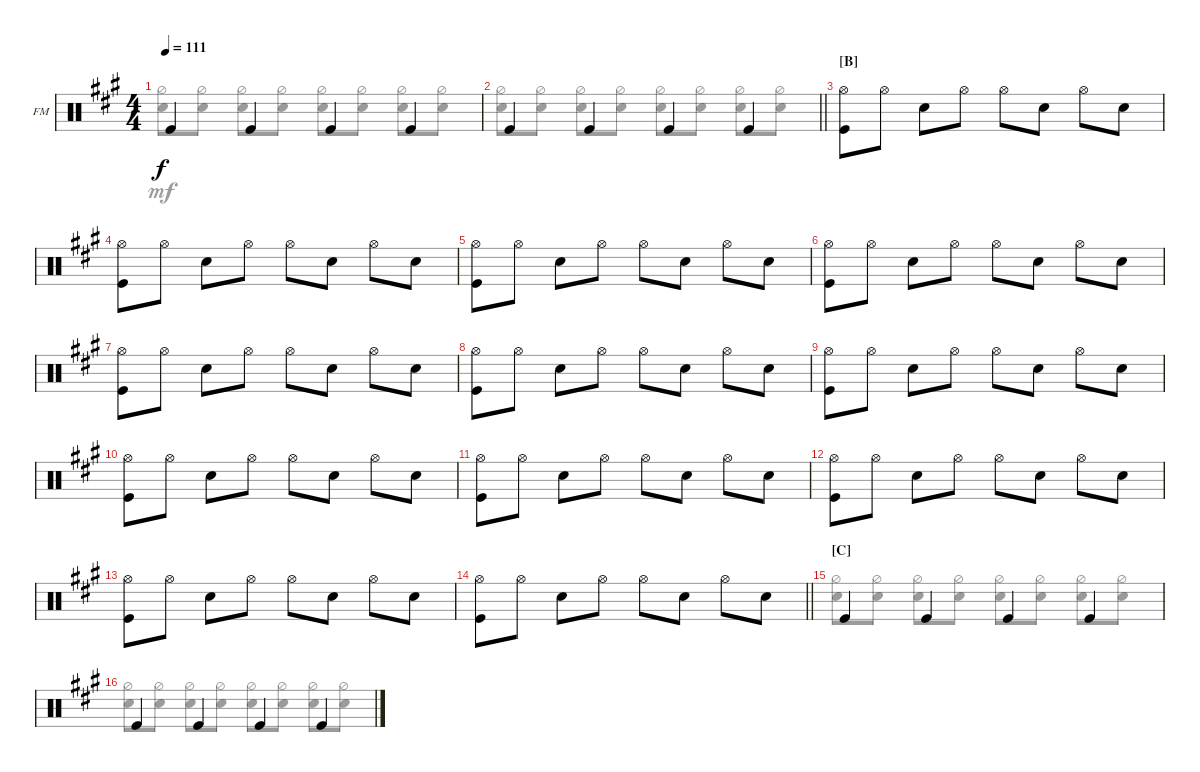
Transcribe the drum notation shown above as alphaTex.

\defaultSystemsLayout 4
\bracketExtendMode groupsimilarinstruments
\firstSystemTrackNameOrientation horizontal
\otherSystemsTrackNameOrientation horizontal
\track ("Fabrizio Moretti" "FM") {instrument percussion}
\staff {score}
\articulation defaults
\voice
\ts (4 4)
\tempo 111
\clef neutral
\ks a "Kick (hit)".4{dy f} "Kick (hit)".4 "Kick (hit)".4 "Kick (hit)".4
|
\barLineRight lightlight "Kick (hit)".4 "Kick (hit)".4 "Kick (hit)".4 "Kick (hit)".4
|
\section ("B" "")
("Kick (hit)" "Hi-Hat (open)").8 "Hi-Hat (open)".8 "Snare (hit) 2".8 "Hi-Hat (open)".8 "Hi-Hat (open)".8 "Snare (hit) 2".8 "Hi-Hat (open)".8 "Snare (hit) 2".8 |
("Kick (hit)" "Hi-Hat (open)").8 "Hi-Hat (open)".8 "Snare (hit) 2".8 "Hi-Hat (open)".8 "Hi-Hat (open)".8 "Snare (hit) 2".8 "Hi-Hat (open)".8 "Snare (hit) 2".8 |
("Kick (hit)" "Hi-Hat (open)").8 "Hi-Hat (open)".8 "Snare (hit) 2".8 "Hi-Hat (open)".8 "Hi-Hat (open)".8 "Snare (hit) 2".8 "Hi-Hat (open)".8 "Snare (hit) 2".8 |
("Kick (hit)" "Hi-Hat (open)").8 "Hi-Hat (open)".8 "Snare (hit) 2".8 "Hi-Hat (open)".8 "Hi-Hat (open)".8 "Snare (hit) 2".8 "Hi-Hat (open)".8 "Snare (hit) 2".8 |
("Kick (hit)" "Hi-Hat (open)").8 "Hi-Hat (open)".8 "Snare (hit) 2".8 "Hi-Hat (open)".8 "Hi-Hat (open)".8 "Snare (hit) 2".8 "Hi-Hat (open)".8 "Snare (hit) 2".8 |
("Kick (hit)" "Hi-Hat (open)").8 "Hi-Hat (open)".8 "Snare (hit) 2".8 "Hi-Hat (open)".8 "Hi-Hat (open)".8 "Snare (hit) 2".8 "Hi-Hat (open)".8 "Snare (hit) 2".8 |
("Kick (hit)" "Hi-Hat (open)").8 "Hi-Hat (open)".8 "Snare (hit) 2".8 "Hi-Hat (open)".8 "Hi-Hat (open)".8 "Snare (hit) 2".8 "Hi-Hat (open)".8 "Snare (hit) 2".8 |
("Kick (hit)" "Hi-Hat (open)").8 "Hi-Hat (open)".8 "Snare (hit) 2".8 "Hi-Hat (open)".8 "Hi-Hat (open)".8 "Snare (hit) 2".8 "Hi-Hat (open)".8 "Snare (hit) 2".8 |
("Kick (hit)" "Hi-Hat (open)").8 "Hi-Hat (open)".8 "Snare (hit) 2".8 "Hi-Hat (open)".8 "Hi-Hat (open)".8 "Snare (hit) 2".8 "Hi-Hat (open)".8 "Snare (hit) 2".8 |
("Kick (hit)" "Hi-Hat (open)").8 "Hi-Hat (open)".8 "Snare (hit) 2".8 "Hi-Hat (open)".8 "Hi-Hat (open)".8 "Snare (hit) 2".8 "Hi-Hat (open)".8 "Snare (hit) 2".8 |
("Kick (hit)" "Hi-Hat (open)").8 "Hi-Hat (open)".8 "Snare (hit) 2".8 "Hi-Hat (open)".8 "Hi-Hat (open)".8 "Snare (hit) 2".8 "Hi-Hat (open)".8 "Snare (hit) 2".8 |
\barLineRight lightlight
("Kick (hit)" "Hi-Hat (open)").8 "Hi-Hat (open)".8 "Snare (hit) 2".8 "Hi-Hat (open)".8 "Hi-Hat (open)".8 "Snare (hit) 2".8 "Hi-Hat (open)".8 "Snare (hit) 2".8 |
\section ("C" "")
"Kick (hit)".4 "Kick (hit)".4 "Kick (hit)".4 "Kick (hit)".4 |
"Kick (hit)".4 "Kick (hit)".4 "Kick (hit)".4 "Kick (hit)".4
\voice
\clef neutral
\ottava regular
\simile none
\ks a
("Snare (hit) 2" "Hi-Hat (half)").8{dy mf} ("Snare (hit) 2" "Hi-Hat (half)").8 ("Snare (hit) 2" "Hi-Hat (half)").8 ("Snare (hit) 2" "Hi-Hat (half)").8 ("Snare (hit) 2" "Hi-Hat (half)").8 ("Snare (hit) 2" "Hi-Hat (half)").8 ("Snare (hit) 2" "Hi-Hat (half)").8 ("Snare (hit) 2" "Hi-Hat (half)").8 |
\barLineRight lightlight
("Snare (hit) 2" "Hi-Hat (half)").8 ("Snare (hit) 2" "Hi-Hat (half)").8 ("Snare (hit) 2" "Hi-Hat (half)").8 ("Snare (hit) 2" "Hi-Hat (half)").8 ("Snare (hit) 2" "Hi-Hat (half)").8 ("Snare (hit) 2" "Hi-Hat (half)").8 ("Snare (hit) 2" "Hi-Hat (half)").8 ("Snare (hit) 2" "Hi-Hat (half)").8 |
|
|
|
|
|
|
|
|
|
|
|
\barLineRight lightlight
|
("Snare (hit) 2" "Hi-Hat (half)").8 ("Snare (hit) 2" "Hi-Hat (half)").8 ("Snare (hit) 2" "Hi-Hat (half)").8 ("Snare (hit) 2" "Hi-Hat (half)").8 ("Snare (hit) 2" "Hi-Hat (half)").8 ("Snare (hit) 2" "Hi-Hat (half)").8 ("Snare (hit) 2" "Hi-Hat (half)").8 ("Snare (hit) 2" "Hi-Hat (half)").8 |
("Snare (hit) 2" "Hi-Hat (half)").8 ("Snare (hit) 2" "Hi-Hat (half)").8 ("Snare (hit) 2" "Hi-Hat (half)").8 ("Snare (hit) 2" "Hi-Hat (half)").8 ("Snare (hit) 2" "Hi-Hat (half)").8 ("Snare (hit) 2" "Hi-Hat (half)").8 ("Snare (hit) 2" "Hi-Hat (half)").8 ("Snare (hit) 2" "Hi-Hat (half)").8
